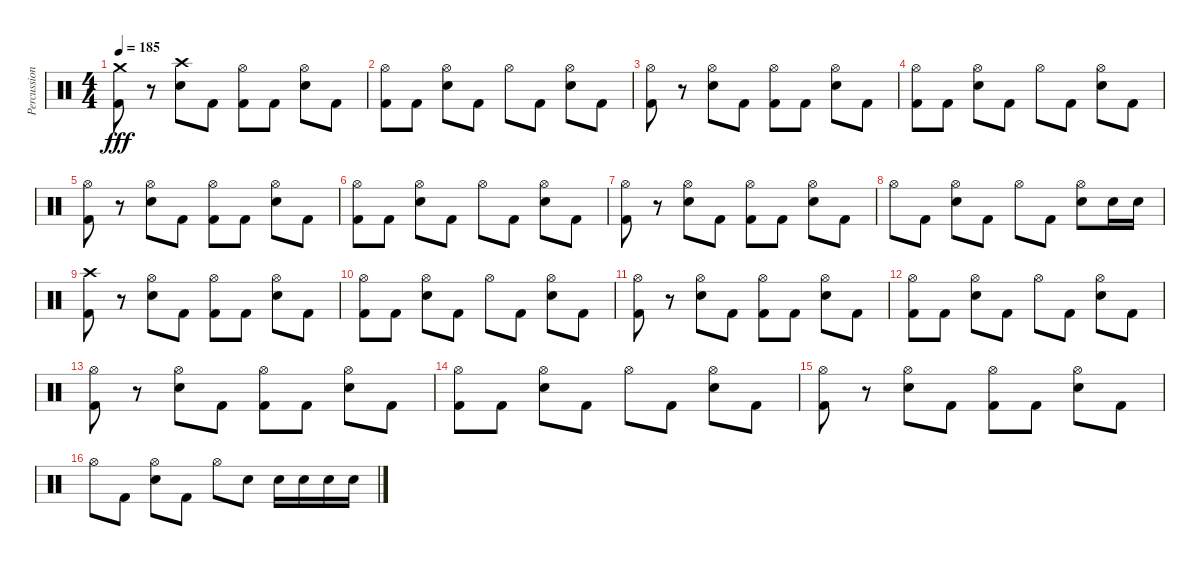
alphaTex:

\track ("Percussion" "Percussion") {instrument percussion}
\staff {score}
\articulation defaults
\ts (4 4)
\tempo 185
\clef neutral
\ks c
("Kick (hit) 2" "Crash medium (hit)").8{dy fff} r.8 ("Electric Snare (hit)" "Crash high (hit)").8 "Kick (hit) 2".8 ("Kick (hit) 2" "Hi-Hat (open)").8 "Kick (hit) 2".8 ("Electric Snare (hit)" "Hi-Hat (open)").8 "Kick (hit) 2".8 |
("Kick (hit) 2" "Hi-Hat (open)").8 "Kick (hit) 2".8 ("Electric Snare (hit)" "Hi-Hat (open)").8 "Kick (hit) 2".8 "Hi-Hat (open)".8 "Kick (hit) 2".8 ("Electric Snare (hit)" "Hi-Hat (open)").8 "Kick (hit) 2".8 |
("Kick (hit) 2" "Hi-Hat (open)").8 r.8 ("Electric Snare (hit)" "Hi-Hat (open)").8 "Kick (hit) 2".8 ("Kick (hit) 2" "Hi-Hat (open)").8 "Kick (hit) 2".8 ("Electric Snare (hit)" "Hi-Hat (open)").8 "Kick (hit) 2".8 |
("Kick (hit) 2" "Hi-Hat (open)").8 "Kick (hit) 2".8 ("Electric Snare (hit)" "Hi-Hat (open)").8 "Kick (hit) 2".8 "Hi-Hat (open)".8 "Kick (hit) 2".8 ("Electric Snare (hit)" "Hi-Hat (open)").8 "Kick (hit) 2".8 |
("Kick (hit) 2" "Hi-Hat (open)").8 r.8 ("Electric Snare (hit)" "Hi-Hat (open)").8 "Kick (hit) 2".8 ("Kick (hit) 2" "Hi-Hat (open)").8 "Kick (hit) 2".8 ("Electric Snare (hit)" "Hi-Hat (open)").8 "Kick (hit) 2".8 |
("Kick (hit) 2" "Hi-Hat (open)").8 "Kick (hit) 2".8 ("Electric Snare (hit)" "Hi-Hat (open)").8 "Kick (hit) 2".8 "Hi-Hat (open)".8 "Kick (hit) 2".8 ("Electric Snare (hit)" "Hi-Hat (open)").8 "Kick (hit) 2".8 |
("Kick (hit) 2" "Hi-Hat (open)").8 r.8 ("Electric Snare (hit)" "Hi-Hat (open)").8 "Kick (hit) 2".8 ("Kick (hit) 2" "Hi-Hat (open)").8 "Kick (hit) 2".8 ("Electric Snare (hit)" "Hi-Hat (open)").8 "Kick (hit) 2".8 |
"Hi-Hat (open)".8 "Kick (hit) 2".8 ("Electric Snare (hit)" "Hi-Hat (open)").8 "Kick (hit) 2".8 "Hi-Hat (open)".8 "Kick (hit) 2".8 ("Electric Snare (hit)" "Hi-Hat (open)").8 "Electric Snare (hit)".16 "Electric Snare (hit)".16 |
("Kick (hit) 2" "Crash high (hit)").8 r.8 ("Electric Snare (hit)" "Hi-Hat (open)").8 "Kick (hit) 2".8 ("Kick (hit) 2" "Hi-Hat (open)").8 "Kick (hit) 2".8 ("Electric Snare (hit)" "Hi-Hat (open)").8 "Kick (hit) 2".8 |
("Kick (hit) 2" "Hi-Hat (open)").8 "Kick (hit) 2".8 ("Electric Snare (hit)" "Hi-Hat (open)").8 "Kick (hit) 2".8 "Hi-Hat (open)".8 "Kick (hit) 2".8 ("Electric Snare (hit)" "Hi-Hat (open)").8 "Kick (hit) 2".8 |
("Kick (hit) 2" "Hi-Hat (open)").8 r.8 ("Electric Snare (hit)" "Hi-Hat (open)").8 "Kick (hit) 2".8 ("Kick (hit) 2" "Hi-Hat (open)").8 "Kick (hit) 2".8 ("Electric Snare (hit)" "Hi-Hat (open)").8 "Kick (hit) 2".8 |
("Kick (hit) 2" "Hi-Hat (open)").8 "Kick (hit) 2".8 ("Electric Snare (hit)" "Hi-Hat (open)").8 "Kick (hit) 2".8 "Hi-Hat (open)".8 "Kick (hit) 2".8 ("Electric Snare (hit)" "Hi-Hat (open)").8 "Kick (hit) 2".8 |
("Kick (hit) 2" "Hi-Hat (open)").8 r.8 ("Electric Snare (hit)" "Hi-Hat (open)").8 "Kick (hit) 2".8 ("Kick (hit) 2" "Hi-Hat (open)").8 "Kick (hit) 2".8 ("Electric Snare (hit)" "Hi-Hat (open)").8 "Kick (hit) 2".8 |
("Kick (hit) 2" "Hi-Hat (open)").8 "Kick (hit) 2".8 ("Electric Snare (hit)" "Hi-Hat (open)").8 "Kick (hit) 2".8 "Hi-Hat (open)".8 "Kick (hit) 2".8 ("Electric Snare (hit)" "Hi-Hat (open)").8 "Kick (hit) 2".8 |
("Kick (hit) 2" "Hi-Hat (open)").8 r.8 ("Electric Snare (hit)" "Hi-Hat (open)").8 "Kick (hit) 2".8 ("Kick (hit) 2" "Hi-Hat (open)").8 "Kick (hit) 2".8 ("Electric Snare (hit)" "Hi-Hat (open)").8 "Kick (hit) 2".8 |
"Hi-Hat (open)".8 "Kick (hit) 2".8 ("Electric Snare (hit)" "Hi-Hat (open)").8 "Kick (hit) 2".8 "Hi-Hat (open)".8 "Electric Snare (hit)".8 "Electric Snare (hit)".16 "Electric Snare (hit)".16 "Electric Snare (hit)".16 "Electric Snare (hit)".16
